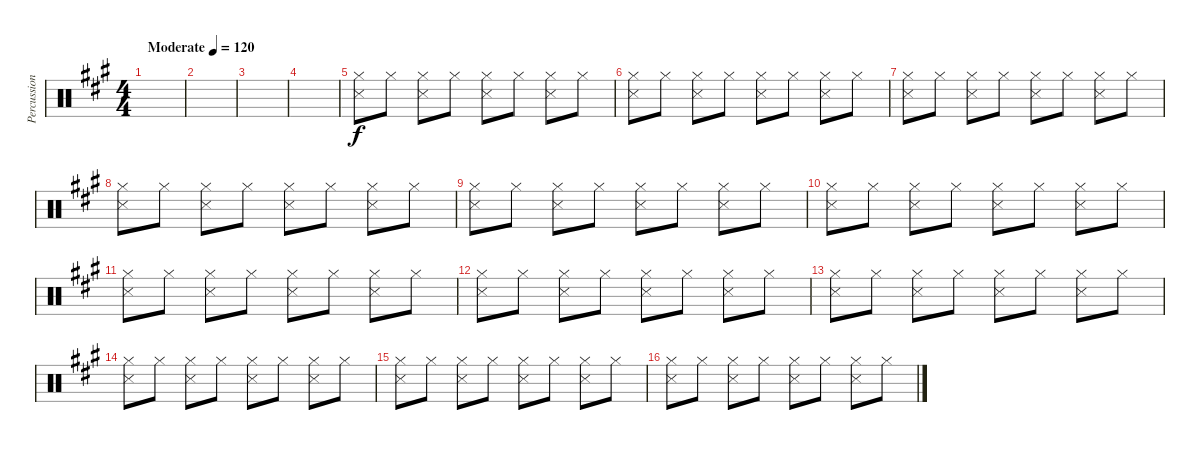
\track ("Percussion" "Percussion") {instrument percussion}
\staff {score}
\articulation defaults
\ts (4 4)
\tempo (120 "Moderate")
\clef neutral
\ks a
|
|
|
|
("Hi-Hat (closed)" "Snare (side stick) 3").8 "Hi-Hat (closed)".8 ("Hi-Hat (closed)" "Snare (side stick) 3").8 "Hi-Hat (closed)".8 ("Hi-Hat (closed)" "Snare (side stick) 3").8 "Hi-Hat (closed)".8 ("Hi-Hat (closed)" "Snare (side stick) 3").8 "Hi-Hat (closed)".8 |
("Hi-Hat (closed)" "Snare (side stick) 3").8 "Hi-Hat (closed)".8 ("Hi-Hat (closed)" "Snare (side stick) 3").8 "Hi-Hat (closed)".8 ("Hi-Hat (closed)" "Snare (side stick) 3").8 "Hi-Hat (closed)".8 ("Hi-Hat (closed)" "Snare (side stick) 3").8 "Hi-Hat (closed)".8 |
("Hi-Hat (closed)" "Snare (side stick) 3").8 "Hi-Hat (closed)".8 ("Hi-Hat (closed)" "Snare (side stick) 3").8 "Hi-Hat (closed)".8 ("Hi-Hat (closed)" "Snare (side stick) 3").8 "Hi-Hat (closed)".8 ("Hi-Hat (closed)" "Snare (side stick) 3").8 "Hi-Hat (closed)".8 |
("Hi-Hat (closed)" "Snare (side stick) 3").8 "Hi-Hat (closed)".8 ("Hi-Hat (closed)" "Snare (side stick) 3").8 "Hi-Hat (closed)".8 ("Hi-Hat (closed)" "Snare (side stick) 3").8 "Hi-Hat (closed)".8 ("Hi-Hat (closed)" "Snare (side stick) 3").8 "Hi-Hat (closed)".8 |
("Hi-Hat (closed)" "Snare (side stick) 3").8 "Hi-Hat (closed)".8 ("Hi-Hat (closed)" "Snare (side stick) 3").8 "Hi-Hat (closed)".8 ("Hi-Hat (closed)" "Snare (side stick) 3").8 "Hi-Hat (closed)".8 ("Hi-Hat (closed)" "Snare (side stick) 3").8 "Hi-Hat (closed)".8 |
("Hi-Hat (closed)" "Snare (side stick) 3").8 "Hi-Hat (closed)".8 ("Hi-Hat (closed)" "Snare (side stick) 3").8 "Hi-Hat (closed)".8 ("Hi-Hat (closed)" "Snare (side stick) 3").8 "Hi-Hat (closed)".8 ("Hi-Hat (closed)" "Snare (side stick) 3").8 "Hi-Hat (closed)".8 |
("Hi-Hat (closed)" "Snare (side stick) 3").8 "Hi-Hat (closed)".8 ("Hi-Hat (closed)" "Snare (side stick) 3").8 "Hi-Hat (closed)".8 ("Hi-Hat (closed)" "Snare (side stick) 3").8 "Hi-Hat (closed)".8 ("Hi-Hat (closed)" "Snare (side stick) 3").8 "Hi-Hat (closed)".8 |
("Hi-Hat (closed)" "Snare (side stick) 3").8 "Hi-Hat (closed)".8 ("Hi-Hat (closed)" "Snare (side stick) 3").8 "Hi-Hat (closed)".8 ("Hi-Hat (closed)" "Snare (side stick) 3").8 "Hi-Hat (closed)".8 ("Hi-Hat (closed)" "Snare (side stick) 3").8 "Hi-Hat (closed)".8 |
("Hi-Hat (closed)" "Snare (side stick) 3").8 "Hi-Hat (closed)".8 ("Hi-Hat (closed)" "Snare (side stick) 3").8 "Hi-Hat (closed)".8 ("Hi-Hat (closed)" "Snare (side stick) 3").8 "Hi-Hat (closed)".8 ("Hi-Hat (closed)" "Snare (side stick) 3").8 "Hi-Hat (closed)".8 |
("Hi-Hat (closed)" "Snare (side stick) 3").8 "Hi-Hat (closed)".8 ("Hi-Hat (closed)" "Snare (side stick) 3").8 "Hi-Hat (closed)".8 ("Hi-Hat (closed)" "Snare (side stick) 3").8 "Hi-Hat (closed)".8 ("Hi-Hat (closed)" "Snare (side stick) 3").8 "Hi-Hat (closed)".8 |
("Hi-Hat (closed)" "Snare (side stick) 3").8 "Hi-Hat (closed)".8 ("Hi-Hat (closed)" "Snare (side stick) 3").8 "Hi-Hat (closed)".8 ("Hi-Hat (closed)" "Snare (side stick) 3").8 "Hi-Hat (closed)".8 ("Hi-Hat (closed)" "Snare (side stick) 3").8 "Hi-Hat (closed)".8 |
("Hi-Hat (closed)" "Snare (side stick) 3").8 "Hi-Hat (closed)".8 ("Hi-Hat (closed)" "Snare (side stick) 3").8 "Hi-Hat (closed)".8 ("Hi-Hat (closed)" "Snare (side stick) 3").8 "Hi-Hat (closed)".8 ("Hi-Hat (closed)" "Snare (side stick) 3").8 "Hi-Hat (closed)".8
